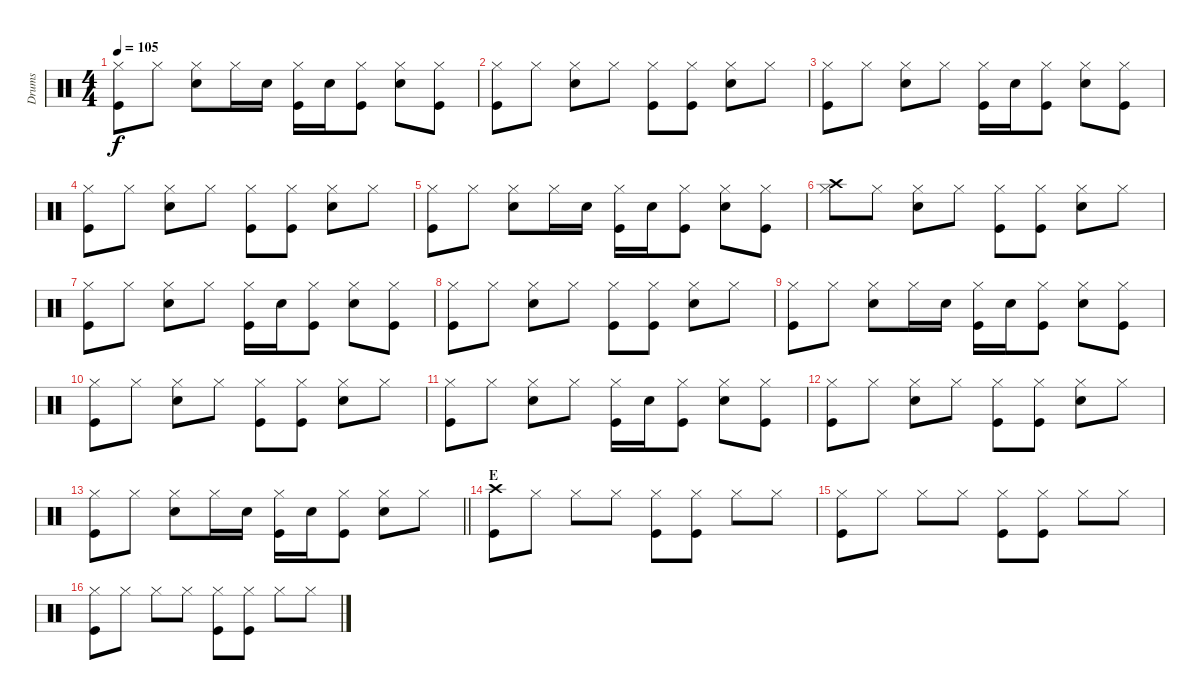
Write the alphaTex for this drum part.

\track ("Drums" "Drums") {instrument percussion}
\staff {score}
\articulation defaults
\ts (4 4)
\tempo 105
\clef neutral
\ks c
("Hi-Hat (closed)" "Kick (hit)").8{dy f} "Hi-Hat (closed)".8 ("Hi-Hat (closed)" "Electric Snare (hit)").8 "Hi-Hat (closed)".16 "Electric Snare (hit)".16 ("Hi-Hat (closed)" "Kick (hit)").16 "Electric Snare (hit)".16 ("Hi-Hat (closed)" "Kick (hit)").8 ("Hi-Hat (closed)" "Electric Snare (hit)").8 ("Hi-Hat (closed)" "Kick (hit)").8 |
("Hi-Hat (closed)" "Kick (hit)").8 "Hi-Hat (closed)".8 ("Hi-Hat (closed)" "Electric Snare (hit)").8 "Hi-Hat (closed)".8 ("Hi-Hat (closed)" "Kick (hit)").8 ("Hi-Hat (closed)" "Kick (hit)").8 ("Hi-Hat (closed)" "Electric Snare (hit)").8 "Hi-Hat (closed)".8 |
("Hi-Hat (closed)" "Kick (hit)").8 "Hi-Hat (closed)".8 ("Hi-Hat (closed)" "Electric Snare (hit)").8 "Hi-Hat (closed)".8 ("Hi-Hat (closed)" "Kick (hit)").16 "Electric Snare (hit)".16 ("Hi-Hat (closed)" "Kick (hit)").8 ("Hi-Hat (closed)" "Electric Snare (hit)").8 ("Hi-Hat (closed)" "Kick (hit)").8 |
("Hi-Hat (closed)" "Kick (hit)").8 "Hi-Hat (closed)".8 ("Hi-Hat (closed)" "Electric Snare (hit)").8 "Hi-Hat (closed)".8 ("Hi-Hat (closed)" "Kick (hit)").8 ("Hi-Hat (closed)" "Kick (hit)").8 ("Hi-Hat (closed)" "Electric Snare (hit)").8 "Hi-Hat (closed)".8 |
("Hi-Hat (closed)" "Kick (hit)").8 "Hi-Hat (closed)".8 ("Hi-Hat (closed)" "Electric Snare (hit)").8 "Hi-Hat (closed)".16 "Electric Snare (hit)".16 ("Hi-Hat (closed)" "Kick (hit)").16 "Electric Snare (hit)".16 ("Hi-Hat (closed)" "Kick (hit)").8 ("Hi-Hat (closed)" "Electric Snare (hit)").8 ("Hi-Hat (closed)" "Kick (hit)").8 |
("Crash high (hit)" "Hi-Hat (closed)").8 "Hi-Hat (closed)".8 ("Hi-Hat (closed)" "Electric Snare (hit)").8 "Hi-Hat (closed)".8 ("Hi-Hat (closed)" "Kick (hit)").8 ("Hi-Hat (closed)" "Kick (hit)").8 ("Hi-Hat (closed)" "Electric Snare (hit)").8 "Hi-Hat (closed)".8 |
("Hi-Hat (closed)" "Kick (hit)").8 "Hi-Hat (closed)".8 ("Hi-Hat (closed)" "Electric Snare (hit)").8 "Hi-Hat (closed)".8 ("Hi-Hat (closed)" "Kick (hit)").16 "Electric Snare (hit)".16 ("Hi-Hat (closed)" "Kick (hit)").8 ("Hi-Hat (closed)" "Electric Snare (hit)").8 ("Hi-Hat (closed)" "Kick (hit)").8 |
("Hi-Hat (closed)" "Kick (hit)").8 "Hi-Hat (closed)".8 ("Hi-Hat (closed)" "Electric Snare (hit)").8 "Hi-Hat (closed)".8 ("Hi-Hat (closed)" "Kick (hit)").8 ("Hi-Hat (closed)" "Kick (hit)").8 ("Hi-Hat (closed)" "Electric Snare (hit)").8 "Hi-Hat (closed)".8 |
("Hi-Hat (closed)" "Kick (hit)").8 "Hi-Hat (closed)".8 ("Hi-Hat (closed)" "Electric Snare (hit)").8 "Hi-Hat (closed)".16 "Electric Snare (hit)".16 ("Hi-Hat (closed)" "Kick (hit)").16 "Electric Snare (hit)".16 ("Hi-Hat (closed)" "Kick (hit)").8 ("Hi-Hat (closed)" "Electric Snare (hit)").8 ("Hi-Hat (closed)" "Kick (hit)").8 |
("Hi-Hat (closed)" "Kick (hit)").8 "Hi-Hat (closed)".8 ("Hi-Hat (closed)" "Electric Snare (hit)").8 "Hi-Hat (closed)".8 ("Hi-Hat (closed)" "Kick (hit)").8 ("Hi-Hat (closed)" "Kick (hit)").8 ("Hi-Hat (closed)" "Electric Snare (hit)").8 "Hi-Hat (closed)".8 |
("Hi-Hat (closed)" "Kick (hit)").8 "Hi-Hat (closed)".8 ("Hi-Hat (closed)" "Electric Snare (hit)").8 "Hi-Hat (closed)".8 ("Hi-Hat (closed)" "Kick (hit)").16 "Electric Snare (hit)".16 ("Hi-Hat (closed)" "Kick (hit)").8 ("Hi-Hat (closed)" "Electric Snare (hit)").8 ("Hi-Hat (closed)" "Kick (hit)").8 |
("Hi-Hat (closed)" "Kick (hit)").8 "Hi-Hat (closed)".8 ("Hi-Hat (closed)" "Electric Snare (hit)").8 "Hi-Hat (closed)".8 ("Hi-Hat (closed)" "Kick (hit)").8 ("Hi-Hat (closed)" "Kick (hit)").8 ("Hi-Hat (closed)" "Electric Snare (hit)").8 "Hi-Hat (closed)".8 |
\barLineRight lightlight
("Hi-Hat (closed)" "Kick (hit)").8 "Hi-Hat (closed)".8 ("Hi-Hat (closed)" "Electric Snare (hit)").8 "Hi-Hat (closed)".16 "Electric Snare (hit)".16 ("Hi-Hat (closed)" "Kick (hit)").16 "Electric Snare (hit)".16 ("Hi-Hat (closed)" "Kick (hit)").8 ("Hi-Hat (closed)" "Electric Snare (hit)").8 "Hi-Hat (closed)".8 |
\section ("" "E")
("Crash high (hit)" "Kick (hit)").8 "Hi-Hat (closed)".8 "Hi-Hat (closed)".8 "Hi-Hat (closed)".8 ("Hi-Hat (closed)" "Kick (hit)").8 ("Hi-Hat (closed)" "Kick (hit)").8 "Hi-Hat (closed)".8 "Hi-Hat (closed)".8 |
("Hi-Hat (closed)" "Kick (hit)").8 "Hi-Hat (closed)".8 "Hi-Hat (closed)".8 "Hi-Hat (closed)".8 ("Hi-Hat (closed)" "Kick (hit)").8 ("Hi-Hat (closed)" "Kick (hit)").8 "Hi-Hat (closed)".8 "Hi-Hat (closed)".8 |
("Hi-Hat (closed)" "Kick (hit)").8 "Hi-Hat (closed)".8 "Hi-Hat (closed)".8 "Hi-Hat (closed)".8 ("Hi-Hat (closed)" "Kick (hit)").8 ("Hi-Hat (closed)" "Kick (hit)").8 "Hi-Hat (closed)".8 "Hi-Hat (closed)".8
